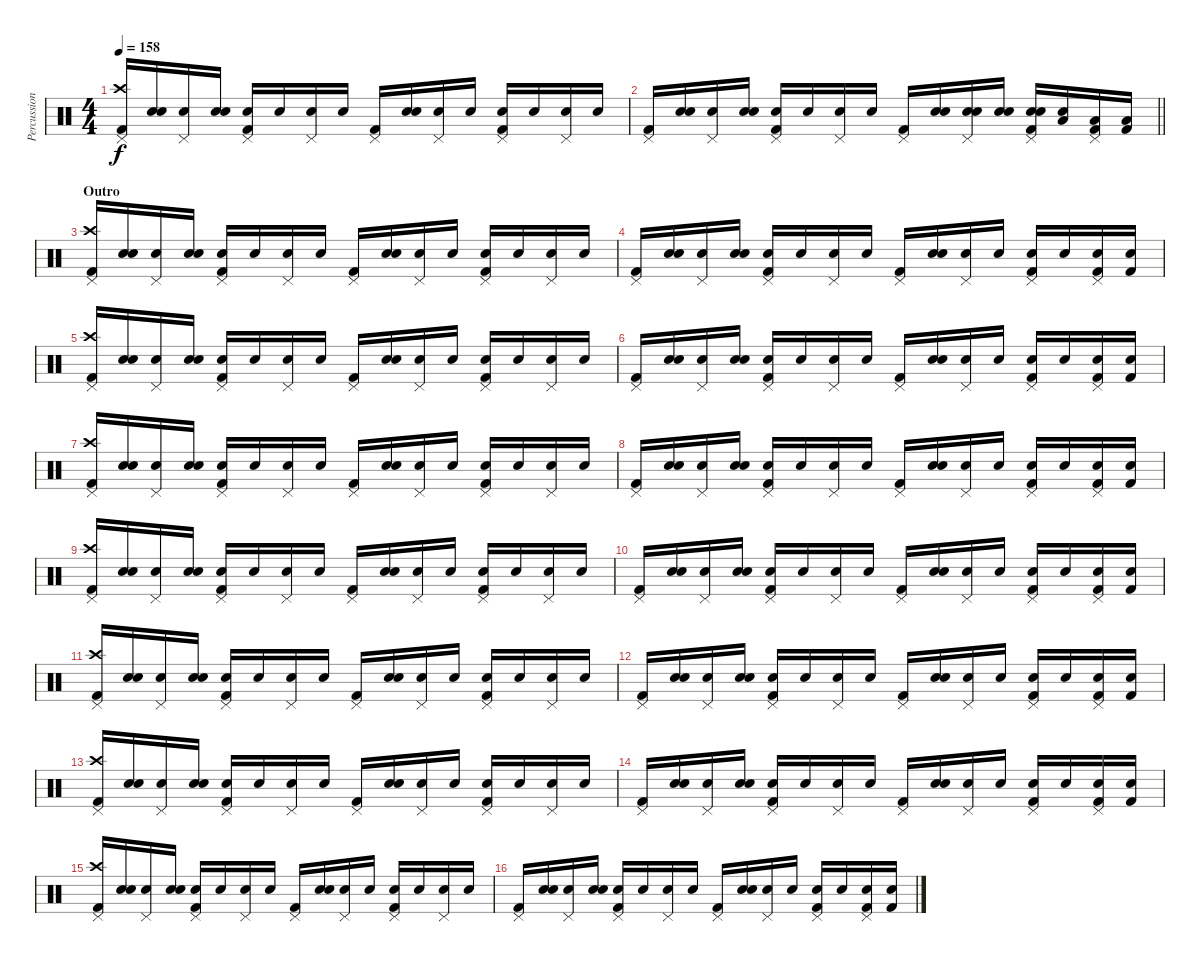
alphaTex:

\track ("Percussion" "Percussion") {instrument percussion}
\staff {score}
\articulation defaults
\ts (4 4)
\tempo 158
\clef neutral
\ks c
("Kick (hit) 2" "Crash high (hit)" "Pedal Hi-Hat (hit)").16{dy f} ("Snare (hit)" "Snare (hit)").16 ("Snare (hit)" "Pedal Hi-Hat (hit)").16 ("Snare (hit)" "Snare (hit)").16 ("Kick (hit) 2" "Electric Snare (hit)" "Pedal Hi-Hat (hit)").16 "Snare (hit)".16 ("Snare (hit)" "Pedal Hi-Hat (hit)").16 "Snare (hit)".16 ("Kick (hit) 2" "Pedal Hi-Hat (hit)").16 ("Snare (hit)" "Snare (hit)").16 ("Snare (hit)" "Pedal Hi-Hat (hit)").16 "Snare (hit)".16 ("Kick (hit) 2" "Electric Snare (hit)" "Pedal Hi-Hat (hit)").16 "Snare (hit)".16 ("Snare (hit)" "Pedal Hi-Hat (hit)").16 "Snare (hit)".16 |
\barLineRight lightlight
("Kick (hit) 2" "Pedal Hi-Hat (hit)").16 ("Snare (hit)" "Snare (hit)").16 ("Snare (hit)" "Pedal Hi-Hat (hit)").16 ("Snare (hit)" "Snare (hit)").16 ("Kick (hit) 2" "Electric Snare (hit)" "Pedal Hi-Hat (hit)").16 "Snare (hit)".16 ("Snare (hit)" "Pedal Hi-Hat (hit)").16 "Snare (hit)".16 ("Kick (hit) 2" "Pedal Hi-Hat (hit)").16 ("Snare (hit)" "Snare (hit)").16 ("Snare (hit)" "Snare (hit) 2" "Pedal Hi-Hat (hit)").16 ("Snare (hit)" "Snare (hit) 2").16 ("Kick (hit) 2" "Snare (hit) 2" "Electric Snare (hit)" "Pedal Hi-Hat (hit)").16 ("Snare (hit)" "Low Tom (hit)").16 ("Kick (hit) 2" "Low Tom (hit)" "Pedal Hi-Hat (hit)").16 ("Kick (hit) 2" "Low Tom (hit)").16 |
\section ("" "Outro")
("Kick (hit) 2" "Crash high (hit)" "Pedal Hi-Hat (hit)").16 ("Snare (hit)" "Snare (hit)").16 ("Snare (hit)" "Pedal Hi-Hat (hit)").16 ("Snare (hit)" "Snare (hit)").16 ("Kick (hit) 2" "Electric Snare (hit)" "Pedal Hi-Hat (hit)").16 "Snare (hit)".16 ("Snare (hit)" "Pedal Hi-Hat (hit)").16 "Snare (hit)".16 ("Kick (hit) 2" "Pedal Hi-Hat (hit)").16 ("Snare (hit)" "Snare (hit)").16 ("Snare (hit)" "Pedal Hi-Hat (hit)").16 "Snare (hit)".16 ("Kick (hit) 2" "Electric Snare (hit)" "Pedal Hi-Hat (hit)").16 "Snare (hit)".16 ("Snare (hit)" "Pedal Hi-Hat (hit)").16 "Snare (hit)".16 |
("Kick (hit) 2" "Pedal Hi-Hat (hit)").16 ("Snare (hit)" "Snare (hit)").16 ("Snare (hit)" "Pedal Hi-Hat (hit)").16 ("Snare (hit)" "Snare (hit)").16 ("Kick (hit) 2" "Electric Snare (hit)" "Pedal Hi-Hat (hit)").16 "Snare (hit)".16 ("Snare (hit)" "Pedal Hi-Hat (hit)").16 "Snare (hit)".16 ("Kick (hit) 2" "Pedal Hi-Hat (hit)").16 ("Snare (hit)" "Snare (hit)").16 ("Snare (hit)" "Pedal Hi-Hat (hit)").16 "Snare (hit)".16 ("Kick (hit) 2" "Electric Snare (hit)" "Pedal Hi-Hat (hit)").16 "Snare (hit)".16 ("Kick (hit) 2" "Snare (hit) 2" "Pedal Hi-Hat (hit)").16 ("Kick (hit) 2" "Snare (hit) 2").16 |
("Kick (hit) 2" "Crash high (hit)" "Pedal Hi-Hat (hit)").16 ("Snare (hit)" "Snare (hit)").16 ("Snare (hit)" "Pedal Hi-Hat (hit)").16 ("Snare (hit)" "Snare (hit)").16 ("Kick (hit) 2" "Electric Snare (hit)" "Pedal Hi-Hat (hit)").16 "Snare (hit)".16 ("Snare (hit)" "Pedal Hi-Hat (hit)").16 "Snare (hit)".16 ("Kick (hit) 2" "Pedal Hi-Hat (hit)").16 ("Snare (hit)" "Snare (hit)").16 ("Snare (hit)" "Pedal Hi-Hat (hit)").16 "Snare (hit)".16 ("Kick (hit) 2" "Electric Snare (hit)" "Pedal Hi-Hat (hit)").16 "Snare (hit)".16 ("Snare (hit)" "Pedal Hi-Hat (hit)").16 "Snare (hit)".16 |
("Kick (hit) 2" "Pedal Hi-Hat (hit)").16 ("Snare (hit)" "Snare (hit)").16 ("Snare (hit)" "Pedal Hi-Hat (hit)").16 ("Snare (hit)" "Snare (hit)").16 ("Kick (hit) 2" "Electric Snare (hit)" "Pedal Hi-Hat (hit)").16 "Snare (hit)".16 ("Snare (hit)" "Pedal Hi-Hat (hit)").16 "Snare (hit)".16 ("Kick (hit) 2" "Pedal Hi-Hat (hit)").16 ("Snare (hit)" "Snare (hit)").16 ("Snare (hit)" "Pedal Hi-Hat (hit)").16 "Snare (hit)".16 ("Kick (hit) 2" "Electric Snare (hit)" "Pedal Hi-Hat (hit)").16 "Snare (hit)".16 ("Kick (hit) 2" "Snare (hit) 2" "Pedal Hi-Hat (hit)").16 ("Kick (hit) 2" "Snare (hit) 2").16 |
("Kick (hit) 2" "Crash high (hit)" "Pedal Hi-Hat (hit)").16 ("Snare (hit)" "Snare (hit)").16 ("Snare (hit)" "Pedal Hi-Hat (hit)").16 ("Snare (hit)" "Snare (hit)").16 ("Kick (hit) 2" "Electric Snare (hit)" "Pedal Hi-Hat (hit)").16 "Snare (hit)".16 ("Snare (hit)" "Pedal Hi-Hat (hit)").16 "Snare (hit)".16 ("Kick (hit) 2" "Pedal Hi-Hat (hit)").16 ("Snare (hit)" "Snare (hit)").16 ("Snare (hit)" "Pedal Hi-Hat (hit)").16 "Snare (hit)".16 ("Kick (hit) 2" "Electric Snare (hit)" "Pedal Hi-Hat (hit)").16 "Snare (hit)".16 ("Snare (hit)" "Pedal Hi-Hat (hit)").16 "Snare (hit)".16 |
("Kick (hit) 2" "Pedal Hi-Hat (hit)").16 ("Snare (hit)" "Snare (hit)").16 ("Snare (hit)" "Pedal Hi-Hat (hit)").16 ("Snare (hit)" "Snare (hit)").16 ("Kick (hit) 2" "Electric Snare (hit)" "Pedal Hi-Hat (hit)").16 "Snare (hit)".16 ("Snare (hit)" "Pedal Hi-Hat (hit)").16 "Snare (hit)".16 ("Kick (hit) 2" "Pedal Hi-Hat (hit)").16 ("Snare (hit)" "Snare (hit)").16 ("Snare (hit)" "Pedal Hi-Hat (hit)").16 "Snare (hit)".16 ("Kick (hit) 2" "Electric Snare (hit)" "Pedal Hi-Hat (hit)").16 "Snare (hit)".16 ("Kick (hit) 2" "Snare (hit) 2" "Pedal Hi-Hat (hit)").16 ("Kick (hit) 2" "Snare (hit) 2").16 |
("Kick (hit) 2" "Crash high (hit)" "Pedal Hi-Hat (hit)").16 ("Snare (hit)" "Snare (hit)").16 ("Snare (hit)" "Pedal Hi-Hat (hit)").16 ("Snare (hit)" "Snare (hit)").16 ("Kick (hit) 2" "Electric Snare (hit)" "Pedal Hi-Hat (hit)").16 "Snare (hit)".16 ("Snare (hit)" "Pedal Hi-Hat (hit)").16 "Snare (hit)".16 ("Kick (hit) 2" "Pedal Hi-Hat (hit)").16 ("Snare (hit)" "Snare (hit)").16 ("Snare (hit)" "Pedal Hi-Hat (hit)").16 "Snare (hit)".16 ("Kick (hit) 2" "Electric Snare (hit)" "Pedal Hi-Hat (hit)").16 "Snare (hit)".16 ("Snare (hit)" "Pedal Hi-Hat (hit)").16 "Snare (hit)".16 |
("Kick (hit) 2" "Pedal Hi-Hat (hit)").16 ("Snare (hit)" "Snare (hit)").16 ("Snare (hit)" "Pedal Hi-Hat (hit)").16 ("Snare (hit)" "Snare (hit)").16 ("Kick (hit) 2" "Electric Snare (hit)" "Pedal Hi-Hat (hit)").16 "Snare (hit)".16 ("Snare (hit)" "Pedal Hi-Hat (hit)").16 "Snare (hit)".16 ("Kick (hit) 2" "Pedal Hi-Hat (hit)").16 ("Snare (hit)" "Snare (hit)").16 ("Snare (hit)" "Pedal Hi-Hat (hit)").16 "Snare (hit)".16 ("Kick (hit) 2" "Electric Snare (hit)" "Pedal Hi-Hat (hit)").16 "Snare (hit)".16 ("Kick (hit) 2" "Snare (hit) 2" "Pedal Hi-Hat (hit)").16 ("Kick (hit) 2" "Snare (hit) 2").16 |
("Kick (hit) 2" "Crash high (hit)" "Pedal Hi-Hat (hit)").16 ("Snare (hit)" "Snare (hit)").16 ("Snare (hit)" "Pedal Hi-Hat (hit)").16 ("Snare (hit)" "Snare (hit)").16 ("Kick (hit) 2" "Electric Snare (hit)" "Pedal Hi-Hat (hit)").16 "Snare (hit)".16 ("Snare (hit)" "Pedal Hi-Hat (hit)").16 "Snare (hit)".16 ("Kick (hit) 2" "Pedal Hi-Hat (hit)").16 ("Snare (hit)" "Snare (hit)").16 ("Snare (hit)" "Pedal Hi-Hat (hit)").16 "Snare (hit)".16 ("Kick (hit) 2" "Electric Snare (hit)" "Pedal Hi-Hat (hit)").16 "Snare (hit)".16 ("Snare (hit)" "Pedal Hi-Hat (hit)").16 "Snare (hit)".16 |
("Kick (hit) 2" "Pedal Hi-Hat (hit)").16 ("Snare (hit)" "Snare (hit)").16 ("Snare (hit)" "Pedal Hi-Hat (hit)").16 ("Snare (hit)" "Snare (hit)").16 ("Kick (hit) 2" "Electric Snare (hit)" "Pedal Hi-Hat (hit)").16 "Snare (hit)".16 ("Snare (hit)" "Pedal Hi-Hat (hit)").16 "Snare (hit)".16 ("Kick (hit) 2" "Pedal Hi-Hat (hit)").16 ("Snare (hit)" "Snare (hit)").16 ("Snare (hit)" "Pedal Hi-Hat (hit)").16 "Snare (hit)".16 ("Kick (hit) 2" "Electric Snare (hit)" "Pedal Hi-Hat (hit)").16 "Snare (hit)".16 ("Kick (hit) 2" "Snare (hit) 2" "Pedal Hi-Hat (hit)").16 ("Kick (hit) 2" "Snare (hit) 2").16 |
("Kick (hit) 2" "Crash high (hit)" "Pedal Hi-Hat (hit)").16 ("Snare (hit)" "Snare (hit)").16 ("Snare (hit)" "Pedal Hi-Hat (hit)").16 ("Snare (hit)" "Snare (hit)").16 ("Kick (hit) 2" "Electric Snare (hit)" "Pedal Hi-Hat (hit)").16 "Snare (hit)".16 ("Snare (hit)" "Pedal Hi-Hat (hit)").16 "Snare (hit)".16 ("Kick (hit) 2" "Pedal Hi-Hat (hit)").16 ("Snare (hit)" "Snare (hit)").16 ("Snare (hit)" "Pedal Hi-Hat (hit)").16 "Snare (hit)".16 ("Kick (hit) 2" "Electric Snare (hit)" "Pedal Hi-Hat (hit)").16 "Snare (hit)".16 ("Snare (hit)" "Pedal Hi-Hat (hit)").16 "Snare (hit)".16 |
("Kick (hit) 2" "Pedal Hi-Hat (hit)").16 ("Snare (hit)" "Snare (hit)").16 ("Snare (hit)" "Pedal Hi-Hat (hit)").16 ("Snare (hit)" "Snare (hit)").16 ("Kick (hit) 2" "Electric Snare (hit)" "Pedal Hi-Hat (hit)").16 "Snare (hit)".16 ("Snare (hit)" "Pedal Hi-Hat (hit)").16 "Snare (hit)".16 ("Kick (hit) 2" "Pedal Hi-Hat (hit)").16 ("Snare (hit)" "Snare (hit)").16 ("Snare (hit)" "Pedal Hi-Hat (hit)").16 "Snare (hit)".16 ("Kick (hit) 2" "Electric Snare (hit)" "Pedal Hi-Hat (hit)").16 "Snare (hit)".16 ("Kick (hit) 2" "Snare (hit) 2" "Pedal Hi-Hat (hit)").16 ("Kick (hit) 2" "Snare (hit) 2").16 |
("Kick (hit) 2" "Crash high (hit)" "Pedal Hi-Hat (hit)").16 ("Snare (hit)" "Snare (hit)").16 ("Snare (hit)" "Pedal Hi-Hat (hit)").16 ("Snare (hit)" "Snare (hit)").16 ("Kick (hit) 2" "Electric Snare (hit)" "Pedal Hi-Hat (hit)").16 "Snare (hit)".16 ("Snare (hit)" "Pedal Hi-Hat (hit)").16 "Snare (hit)".16 ("Kick (hit) 2" "Pedal Hi-Hat (hit)").16 ("Snare (hit)" "Snare (hit)").16 ("Snare (hit)" "Pedal Hi-Hat (hit)").16 "Snare (hit)".16 ("Kick (hit) 2" "Electric Snare (hit)" "Pedal Hi-Hat (hit)").16 "Snare (hit)".16 ("Snare (hit)" "Pedal Hi-Hat (hit)").16 "Snare (hit)".16 |
("Kick (hit) 2" "Pedal Hi-Hat (hit)").16 ("Snare (hit)" "Snare (hit)").16 ("Snare (hit)" "Pedal Hi-Hat (hit)").16 ("Snare (hit)" "Snare (hit)").16 ("Kick (hit) 2" "Electric Snare (hit)" "Pedal Hi-Hat (hit)").16 "Snare (hit)".16 ("Snare (hit)" "Pedal Hi-Hat (hit)").16 "Snare (hit)".16 ("Kick (hit) 2" "Pedal Hi-Hat (hit)").16 ("Snare (hit)" "Snare (hit)").16 ("Snare (hit)" "Pedal Hi-Hat (hit)").16 "Snare (hit)".16 ("Kick (hit) 2" "Electric Snare (hit)" "Pedal Hi-Hat (hit)").16 "Snare (hit)".16 ("Kick (hit) 2" "Snare (hit) 2" "Pedal Hi-Hat (hit)").16 ("Kick (hit) 2" "Snare (hit) 2").16
